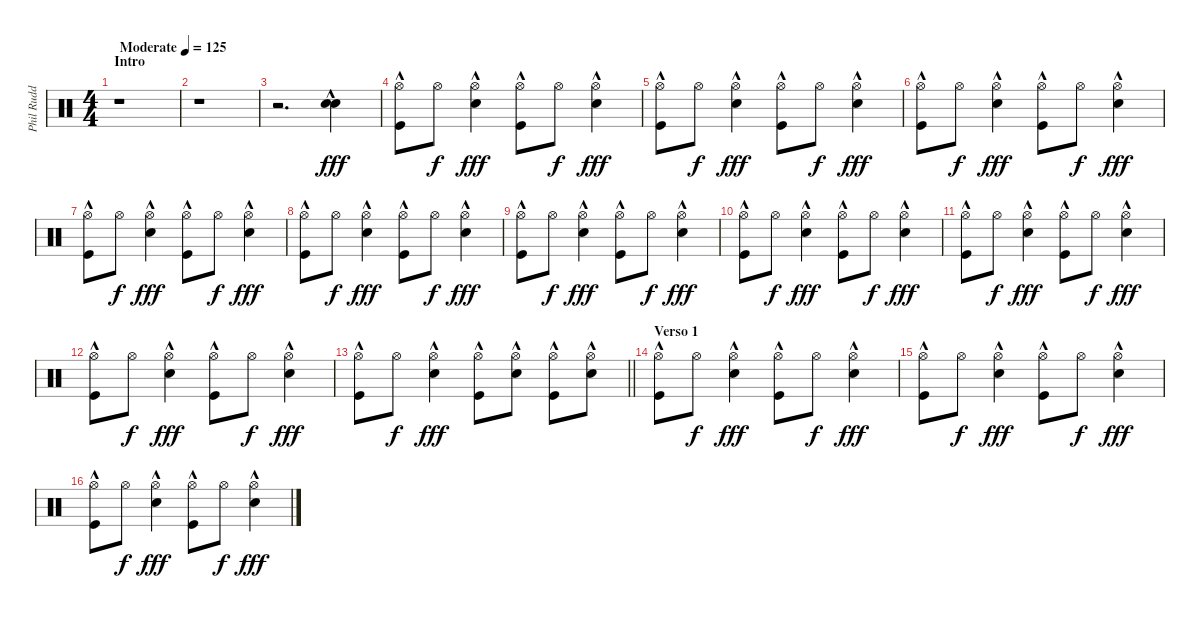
\track ("Phil Rudd" "Phil Rudd") {instrument percussion}
\staff {score}
\articulation defaults
\ts (4 4)
\section ("" "Intro")
\tempo (125 "Moderate")
\clef neutral
\ks c
r.1{dy fff} |
r.1 |
r.2{d} ("Electric Snare (hit)"{hac} "Electric Snare (hit)"{hac}).4 |
("Hi-Hat (open)" "Kick (hit)"{hac}).8 "Hi-Hat (open)".8{dy f} ("Snare (hit) 2"{hac} "Hi-Hat (open)").4{dy fff} ("Hi-Hat (open)" "Kick (hit)"{hac}).8 "Hi-Hat (open)".8{dy f} ("Snare (hit) 2"{hac} "Hi-Hat (open)").4{dy fff} |
("Hi-Hat (open)" "Kick (hit)"{hac}).8 "Hi-Hat (open)".8{dy f} ("Snare (hit) 2"{hac} "Hi-Hat (open)").4{dy fff} ("Hi-Hat (open)" "Kick (hit)"{hac}).8 "Hi-Hat (open)".8{dy f} ("Snare (hit) 2"{hac} "Hi-Hat (open)").4{dy fff} |
("Hi-Hat (open)" "Kick (hit)"{hac}).8 "Hi-Hat (open)".8{dy f} ("Snare (hit) 2"{hac} "Hi-Hat (open)").4{dy fff} ("Hi-Hat (open)" "Kick (hit)"{hac}).8 "Hi-Hat (open)".8{dy f} ("Snare (hit) 2"{hac} "Hi-Hat (open)").4{dy fff} |
("Hi-Hat (open)" "Kick (hit)"{hac}).8 "Hi-Hat (open)".8{dy f} ("Snare (hit) 2"{hac} "Hi-Hat (open)").4{dy fff} ("Hi-Hat (open)" "Kick (hit)"{hac}).8 "Hi-Hat (open)".8{dy f} ("Snare (hit) 2"{hac} "Hi-Hat (open)").4{dy fff} |
("Hi-Hat (open)" "Kick (hit)"{hac}).8 "Hi-Hat (open)".8{dy f} ("Snare (hit) 2"{hac} "Hi-Hat (open)").4{dy fff} ("Hi-Hat (open)" "Kick (hit)"{hac}).8 "Hi-Hat (open)".8{dy f} ("Snare (hit) 2"{hac} "Hi-Hat (open)").4{dy fff} |
("Hi-Hat (open)" "Kick (hit)"{hac}).8 "Hi-Hat (open)".8{dy f} ("Snare (hit) 2"{hac} "Hi-Hat (open)").4{dy fff} ("Hi-Hat (open)" "Kick (hit)"{hac}).8 "Hi-Hat (open)".8{dy f} ("Snare (hit) 2"{hac} "Hi-Hat (open)").4{dy fff} |
("Hi-Hat (open)" "Kick (hit)"{hac}).8 "Hi-Hat (open)".8{dy f} ("Snare (hit) 2"{hac} "Hi-Hat (open)").4{dy fff} ("Hi-Hat (open)" "Kick (hit)"{hac}).8 "Hi-Hat (open)".8{dy f} ("Snare (hit) 2"{hac} "Hi-Hat (open)").4{dy fff} |
("Hi-Hat (open)" "Kick (hit)"{hac}).8 "Hi-Hat (open)".8{dy f} ("Snare (hit) 2"{hac} "Hi-Hat (open)").4{dy fff} ("Hi-Hat (open)" "Kick (hit)"{hac}).8 "Hi-Hat (open)".8{dy f} ("Snare (hit) 2"{hac} "Hi-Hat (open)").4{dy fff} |
("Hi-Hat (open)" "Kick (hit)"{hac}).8 "Hi-Hat (open)".8{dy f} ("Snare (hit) 2"{hac} "Hi-Hat (open)").4{dy fff} ("Hi-Hat (open)" "Kick (hit)"{hac}).8 "Hi-Hat (open)".8{dy f} ("Snare (hit) 2"{hac} "Hi-Hat (open)").4{dy fff} |
\barLineRight lightlight
("Hi-Hat (open)" "Kick (hit)"{hac}).8 "Hi-Hat (open)".8{dy f} ("Snare (hit) 2"{hac} "Hi-Hat (open)").4{dy fff} ("Hi-Hat (open)"{hac} "Kick (hit)").8 ("Snare (hit) 2"{hac} "Hi-Hat (open)").8 ("Hi-Hat (open)"{hac} "Kick (hit)").8 ("Snare (hit) 2"{hac} "Hi-Hat (open)").8 |
\section ("" "Verso 1")
("Hi-Hat (open)" "Kick (hit)"{hac}).8 "Hi-Hat (open)".8{dy f} ("Snare (hit) 2"{hac} "Hi-Hat (open)").4{dy fff} ("Hi-Hat (open)" "Kick (hit)"{hac}).8 "Hi-Hat (open)".8{dy f} ("Snare (hit) 2"{hac} "Hi-Hat (open)").4{dy fff} |
("Hi-Hat (open)" "Kick (hit)"{hac}).8 "Hi-Hat (open)".8{dy f} ("Snare (hit) 2"{hac} "Hi-Hat (open)").4{dy fff} ("Hi-Hat (open)" "Kick (hit)"{hac}).8 "Hi-Hat (open)".8{dy f} ("Snare (hit) 2"{hac} "Hi-Hat (open)").4{dy fff} |
("Hi-Hat (open)" "Kick (hit)"{hac}).8 "Hi-Hat (open)".8{dy f} ("Snare (hit) 2"{hac} "Hi-Hat (open)").4{dy fff} ("Hi-Hat (open)" "Kick (hit)"{hac}).8 "Hi-Hat (open)".8{dy f} ("Snare (hit) 2"{hac} "Hi-Hat (open)").4{dy fff}
